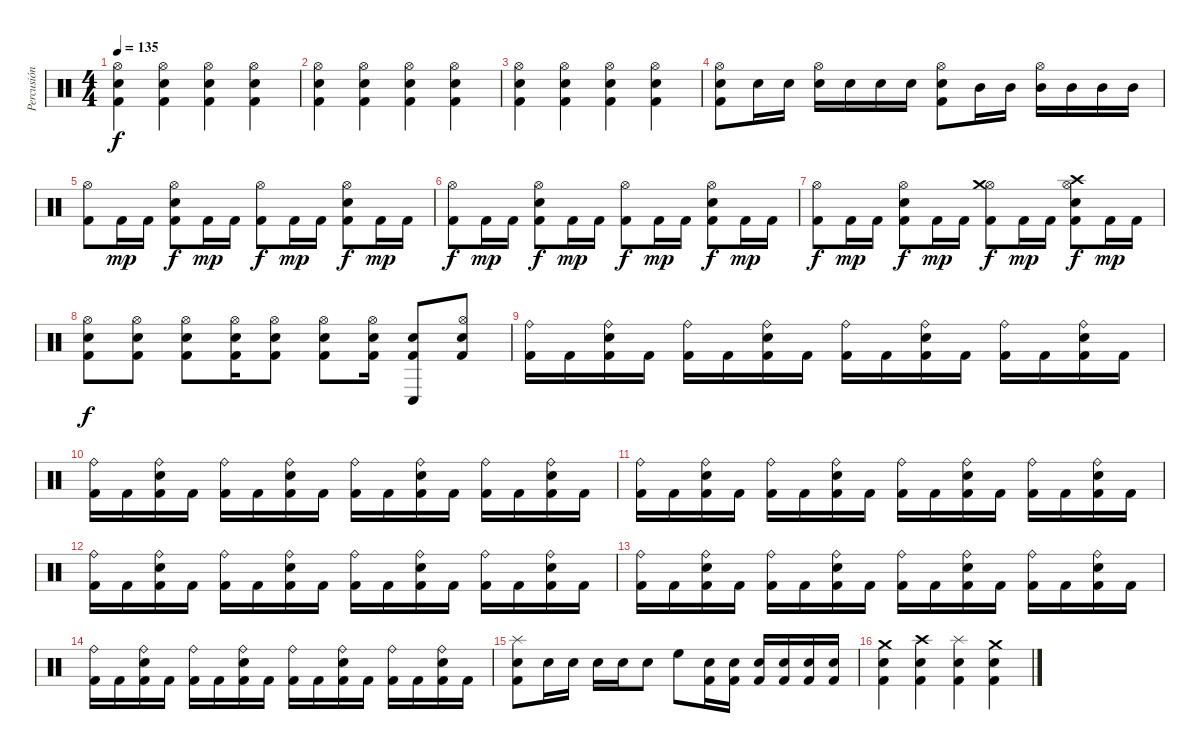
\track ("Percusión" "Percusión") {instrument percussion}
\staff {score}
\articulation defaults
\ts (4 4)
\tempo 135
\clef neutral
\ks c
("Hi-Hat (open)" "Snare (hit) 2" "Kick (hit) 2").4{dy f} ("Hi-Hat (open)" "Snare (hit) 2" "Kick (hit) 2").4 ("Hi-Hat (open)" "Snare (hit) 2" "Kick (hit) 2").4 ("Hi-Hat (open)" "Snare (hit) 2" "Kick (hit) 2").4 |
("Hi-Hat (open)" "Snare (hit) 2" "Kick (hit) 2").4 ("Hi-Hat (open)" "Snare (hit) 2" "Kick (hit) 2").4 ("Hi-Hat (open)" "Snare (hit) 2" "Kick (hit) 2").4 ("Hi-Hat (open)" "Snare (hit) 2" "Kick (hit) 2").4 |
("Hi-Hat (open)" "Snare (hit) 2" "Kick (hit) 2").4 ("Hi-Hat (open)" "Snare (hit) 2" "Kick (hit) 2").4 ("Hi-Hat (open)" "Snare (hit) 2" "Kick (hit) 2").4 ("Hi-Hat (open)" "Snare (hit) 2" "Kick (hit) 2").4 |
("Hi-Hat (open)" "Snare (hit) 2" "Kick (hit) 2").8 "Snare (hit) 2".16 "Snare (hit) 2".16 ("Hi-Hat (open)" "Snare (hit) 2").16 "Snare (hit) 2".16 "Snare (hit) 2".16 "Snare (hit) 2".16 ("Hi-Hat (open)" "Snare (hit) 2" "Kick (hit) 2").8 "Mid Tom (hit)".16 "Mid Tom (hit)".16 ("Hi-Hat (open)" "Mid Tom (hit)").16 "Mid Tom (hit)".16 "Mid Tom (hit)".16 "Mid Tom (hit)".16 |
("Hi-Hat (open)" "Kick (hit) 2").8 "Kick (hit) 2".16{dy mp} "Kick (hit) 2".16 ("Hi-Hat (open)" "Snare (hit) 2" "Kick (hit) 2").8{dy f} "Kick (hit) 2".16{dy mp} "Kick (hit) 2".16 ("Hi-Hat (open)" "Kick (hit) 2").8{dy f} "Kick (hit) 2".16{dy mp} "Kick (hit) 2".16 ("Hi-Hat (open)" "Snare (hit) 2" "Kick (hit) 2").8{dy f} "Kick (hit) 2".16{dy mp} "Kick (hit) 2".16 |
("Hi-Hat (open)" "Kick (hit) 2").8{dy f} "Kick (hit) 2".16{dy mp} "Kick (hit) 2".16 ("Hi-Hat (open)" "Snare (hit) 2" "Kick (hit) 2").8{dy f} "Kick (hit) 2".16{dy mp} "Kick (hit) 2".16 ("Hi-Hat (open)" "Kick (hit) 2").8{dy f} "Kick (hit) 2".16{dy mp} "Kick (hit) 2".16 ("Hi-Hat (open)" "Snare (hit) 2" "Kick (hit) 2").8{dy f} "Kick (hit) 2".16{dy mp} "Kick (hit) 2".16 |
("Hi-Hat (open)" "Kick (hit) 2").8{dy f} "Kick (hit) 2".16{dy mp} "Kick (hit) 2".16 ("Hi-Hat (open)" "Snare (hit) 2" "Kick (hit) 2").8{dy f} "Kick (hit) 2".16{dy mp} "Kick (hit) 2".16 ("Hi-Hat (open)" "Crash medium (hit)" "Kick (hit) 2").8{dy f} "Kick (hit) 2".16{dy mp} "Kick (hit) 2".16 ("Hi-Hat (open)" "Crash high (hit)" "Snare (hit) 2" "Kick (hit) 2").8{dy f} "Kick (hit) 2".16{dy mp} "Kick (hit) 2".16 |
("Hi-Hat (open)" "Snare (hit) 2" "Kick (hit) 2").8{dy f} ("Hi-Hat (open)" "Snare (hit) 2" "Kick (hit) 2").8 ("Hi-Hat (open)" "Snare (hit) 2" "Kick (hit) 2").8 ("Hi-Hat (open)" "Snare (hit) 2" "Kick (hit) 2").16 ("Hi-Hat (open)" "Snare (hit) 2" "Kick (hit) 2").8 ("Hi-Hat (open)" "Snare (hit) 2" "Kick (hit) 2").8 ("Hi-Hat (open)" "Snare (hit) 2" "Kick (hit) 2").16 ("Conga low (hit)" "Snare (hit) 2" "Kick (hit) 2").8 ("Hi-Hat (open)" "Snare (hit) 2" "Kick (hit) 2").8 |
("Ride (bell)" "Kick (hit) 2").16 "Kick (hit) 2".16 ("Ride (bell)" "Snare (hit) 2" "Kick (hit) 2").16 "Kick (hit) 2".16 ("Ride (bell)" "Kick (hit) 2").16 "Kick (hit) 2".16 ("Ride (bell)" "Snare (hit) 2" "Kick (hit) 2").16 "Kick (hit) 2".16 ("Ride (bell)" "Kick (hit) 2").16 "Kick (hit) 2".16 ("Ride (bell)" "Snare (hit) 2" "Kick (hit) 2").16 "Kick (hit) 2".16 ("Ride (bell)" "Kick (hit) 2").16 "Kick (hit) 2".16 ("Ride (bell)" "Snare (hit) 2" "Kick (hit) 2").16 "Kick (hit) 2".16 |
("Ride (bell)" "Kick (hit) 2").16 "Kick (hit) 2".16 ("Ride (bell)" "Snare (hit) 2" "Kick (hit) 2").16 "Kick (hit) 2".16 ("Ride (bell)" "Kick (hit) 2").16 "Kick (hit) 2".16 ("Ride (bell)" "Snare (hit) 2" "Kick (hit) 2").16 "Kick (hit) 2".16 ("Ride (bell)" "Kick (hit) 2").16 "Kick (hit) 2".16 ("Ride (bell)" "Snare (hit) 2" "Kick (hit) 2").16 "Kick (hit) 2".16 ("Ride (bell)" "Kick (hit) 2").16 "Kick (hit) 2".16 ("Ride (bell)" "Snare (hit) 2" "Kick (hit) 2").16 "Kick (hit) 2".16 |
("Ride (bell)" "Kick (hit) 2").16 "Kick (hit) 2".16 ("Ride (bell)" "Snare (hit) 2" "Kick (hit) 2").16 "Kick (hit) 2".16 ("Ride (bell)" "Kick (hit) 2").16 "Kick (hit) 2".16 ("Ride (bell)" "Snare (hit) 2" "Kick (hit) 2").16 "Kick (hit) 2".16 ("Ride (bell)" "Kick (hit) 2").16 "Kick (hit) 2".16 ("Ride (bell)" "Snare (hit) 2" "Kick (hit) 2").16 "Kick (hit) 2".16 ("Ride (bell)" "Kick (hit) 2").16 "Kick (hit) 2".16 ("Ride (bell)" "Snare (hit) 2" "Kick (hit) 2").16 "Kick (hit) 2".16 |
("Ride (bell)" "Kick (hit) 2").16 "Kick (hit) 2".16 ("Ride (bell)" "Snare (hit) 2" "Kick (hit) 2").16 "Kick (hit) 2".16 ("Ride (bell)" "Kick (hit) 2").16 "Kick (hit) 2".16 ("Ride (bell)" "Snare (hit) 2" "Kick (hit) 2").16 "Kick (hit) 2".16 ("Ride (bell)" "Kick (hit) 2").16 "Kick (hit) 2".16 ("Ride (bell)" "Snare (hit) 2" "Kick (hit) 2").16 "Kick (hit) 2".16 ("Ride (bell)" "Kick (hit) 2").16 "Kick (hit) 2".16 ("Ride (bell)" "Snare (hit) 2" "Kick (hit) 2").16 "Kick (hit) 2".16 |
("Ride (bell)" "Kick (hit) 2").16 "Kick (hit) 2".16 ("Ride (bell)" "Snare (hit) 2" "Kick (hit) 2").16 "Kick (hit) 2".16 ("Ride (bell)" "Kick (hit) 2").16 "Kick (hit) 2".16 ("Ride (bell)" "Snare (hit) 2" "Kick (hit) 2").16 "Kick (hit) 2".16 ("Ride (bell)" "Kick (hit) 2").16 "Kick (hit) 2".16 ("Ride (bell)" "Snare (hit) 2" "Kick (hit) 2").16 "Kick (hit) 2".16 ("Ride (bell)" "Kick (hit) 2").16 "Kick (hit) 2".16 ("Ride (bell)" "Snare (hit) 2" "Kick (hit) 2").16 "Kick (hit) 2".16 |
("Ride (bell)" "Kick (hit) 2").16 "Kick (hit) 2".16 ("Ride (bell)" "Snare (hit) 2" "Kick (hit) 2").16 "Kick (hit) 2".16 ("Ride (bell)" "Kick (hit) 2").16 "Kick (hit) 2".16 ("Ride (bell)" "Snare (hit) 2" "Kick (hit) 2").16 "Kick (hit) 2".16 ("Ride (bell)" "Kick (hit) 2").16 "Kick (hit) 2".16 ("Ride (bell)" "Snare (hit) 2" "Kick (hit) 2").16 "Kick (hit) 2".16 ("Ride (bell)" "Kick (hit) 2").16 "Kick (hit) 2".16 ("Ride (bell)" "Snare (hit) 2" "Kick (hit) 2").16 "Kick (hit) 2".16 |
("Splash (hit)" "Snare (hit) 2" "Kick (hit) 2").8 "Snare (hit) 2".16 "Snare (hit) 2".16 "Snare (hit) 2".16 "Snare (hit) 2".16 "Snare (hit) 2".8 "High Floor Tom (hit)".8 ("Snare (hit) 2" "Kick (hit) 2").16 ("Snare (hit) 2" "Kick (hit) 2").16 ("Snare (hit) 2" "Kick (hit) 2").16 ("Snare (hit) 2" "Kick (hit) 2").16 ("Snare (hit) 2" "Kick (hit) 2").16 ("Snare (hit) 2" "Kick (hit) 2").16 |
("Crash medium (hit)" "Snare (hit) 2" "Kick (hit) 2").4 ("Crash high (hit)" "Snare (hit) 2" "Kick (hit) 2").4 ("Splash (hit)" "Snare (hit) 2" "Kick (hit) 2").4 ("Crash medium (hit)" "Snare (hit) 2" "Kick (hit) 2").4
